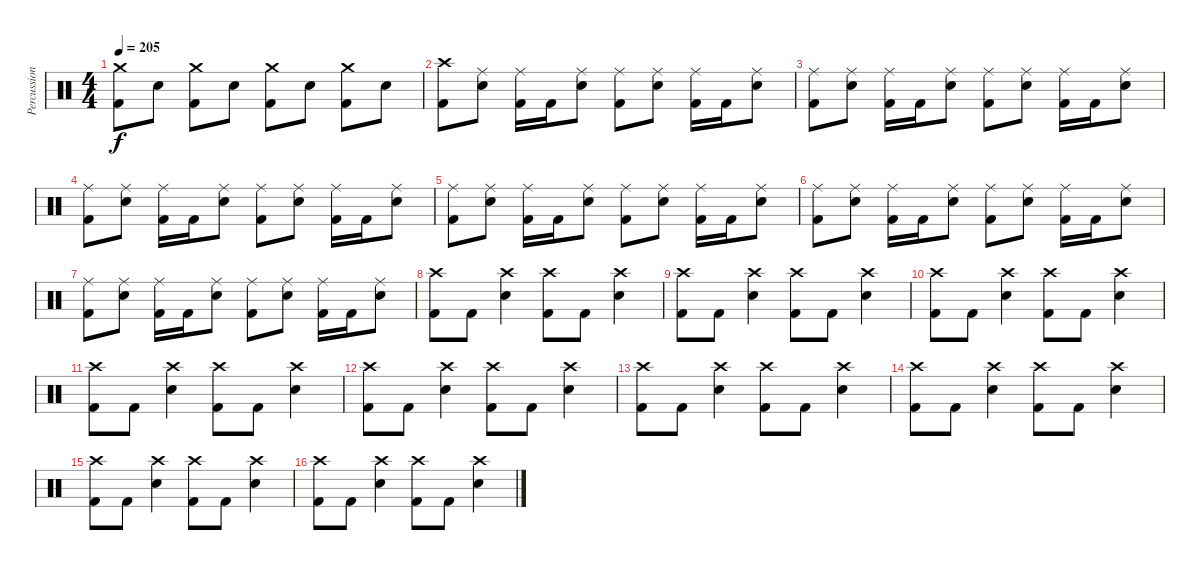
\track ("Percussions" "Percussion") {instrument percussion}
\staff {score}
\articulation defaults
\ts (4 4)
\tempo 205
\clef neutral
\ks c
("Crash medium (hit)" "Kick (hit) 2").8{dy f} "Snare (hit) 2".8 ("Crash medium (hit)" "Kick (hit) 2").8 "Snare (hit) 2".8 ("Crash medium (hit)" "Kick (hit) 2").8 "Snare (hit) 2".8 ("Crash medium (hit)" "Kick (hit) 2").8 "Snare (hit) 2".8 |
("Crash high (hit)" "Kick (hit) 2").8 ("Ride (middle)" "Snare (hit) 2").8 ("Ride (middle)" "Kick (hit) 2").16 "Kick (hit) 2".16 ("Ride (middle)" "Snare (hit) 2").8 ("Ride (middle)" "Kick (hit) 2").8 ("Ride (middle)" "Snare (hit) 2").8 ("Ride (middle)" "Kick (hit) 2").16 "Kick (hit) 2".16 ("Ride (middle)" "Snare (hit) 2").8 |
("Ride (middle)" "Kick (hit) 2").8 ("Ride (middle)" "Snare (hit) 2").8 ("Ride (middle)" "Kick (hit) 2").16 "Kick (hit) 2".16 ("Ride (middle)" "Snare (hit) 2").8 ("Ride (middle)" "Kick (hit) 2").8 ("Ride (middle)" "Snare (hit) 2").8 ("Ride (middle)" "Kick (hit) 2").16 "Kick (hit) 2".16 ("Ride (middle)" "Snare (hit) 2").8 |
("Ride (middle)" "Kick (hit) 2").8 ("Ride (middle)" "Snare (hit) 2").8 ("Ride (middle)" "Kick (hit) 2").16 "Kick (hit) 2".16 ("Ride (middle)" "Snare (hit) 2").8 ("Ride (middle)" "Kick (hit) 2").8 ("Ride (middle)" "Snare (hit) 2").8 ("Ride (middle)" "Kick (hit) 2").16 "Kick (hit) 2".16 ("Ride (middle)" "Snare (hit) 2").8 |
("Ride (middle)" "Kick (hit) 2").8 ("Ride (middle)" "Snare (hit) 2").8 ("Ride (middle)" "Kick (hit) 2").16 "Kick (hit) 2".16 ("Ride (middle)" "Snare (hit) 2").8 ("Ride (middle)" "Kick (hit) 2").8 ("Ride (middle)" "Snare (hit) 2").8 ("Ride (middle)" "Kick (hit) 2").16 "Kick (hit) 2".16 ("Ride (middle)" "Snare (hit) 2").8 |
("Ride (middle)" "Kick (hit) 2").8 ("Ride (middle)" "Snare (hit) 2").8 ("Ride (middle)" "Kick (hit) 2").16 "Kick (hit) 2".16 ("Ride (middle)" "Snare (hit) 2").8 ("Ride (middle)" "Kick (hit) 2").8 ("Ride (middle)" "Snare (hit) 2").8 ("Ride (middle)" "Kick (hit) 2").16 "Kick (hit) 2".16 ("Ride (middle)" "Snare (hit) 2").8 |
("Ride (middle)" "Kick (hit) 2").8 ("Ride (middle)" "Snare (hit) 2").8 ("Ride (middle)" "Kick (hit) 2").16 "Kick (hit) 2".16 ("Ride (middle)" "Snare (hit) 2").8 ("Ride (middle)" "Kick (hit) 2").8 ("Ride (middle)" "Snare (hit) 2").8 ("Ride (middle)" "Kick (hit) 2").16 "Kick (hit) 2".16 ("Ride (middle)" "Snare (hit) 2").8 |
("Crash high (hit)" "Kick (hit) 2").8 "Kick (hit) 2".8 ("Crash high (hit)" "Snare (hit) 2").4 ("Crash high (hit)" "Kick (hit) 2").8 "Kick (hit) 2".8 ("Crash high (hit)" "Snare (hit) 2").4 |
("Crash high (hit)" "Kick (hit) 2").8 "Kick (hit) 2".8 ("Crash high (hit)" "Snare (hit) 2").4 ("Crash high (hit)" "Kick (hit) 2").8 "Kick (hit) 2".8 ("Crash high (hit)" "Snare (hit) 2").4 |
("Crash high (hit)" "Kick (hit) 2").8 "Kick (hit) 2".8 ("Crash high (hit)" "Snare (hit) 2").4 ("Crash high (hit)" "Kick (hit) 2").8 "Kick (hit) 2".8 ("Crash high (hit)" "Snare (hit) 2").4 |
("Crash high (hit)" "Kick (hit) 2").8 "Kick (hit) 2".8 ("Crash high (hit)" "Snare (hit) 2").4 ("Crash high (hit)" "Kick (hit) 2").8 "Kick (hit) 2".8 ("Crash high (hit)" "Snare (hit) 2").4 |
("Crash high (hit)" "Kick (hit) 2").8 "Kick (hit) 2".8 ("Crash high (hit)" "Snare (hit) 2").4 ("Crash high (hit)" "Kick (hit) 2").8 "Kick (hit) 2".8 ("Crash high (hit)" "Snare (hit) 2").4 |
("Crash high (hit)" "Kick (hit) 2").8 "Kick (hit) 2".8 ("Crash high (hit)" "Snare (hit) 2").4 ("Crash high (hit)" "Kick (hit) 2").8 "Kick (hit) 2".8 ("Crash high (hit)" "Snare (hit) 2").4 |
("Crash high (hit)" "Kick (hit) 2").8 "Kick (hit) 2".8 ("Crash high (hit)" "Snare (hit) 2").4 ("Crash high (hit)" "Kick (hit) 2").8 "Kick (hit) 2".8 ("Crash high (hit)" "Snare (hit) 2").4 |
("Crash high (hit)" "Kick (hit) 2").8 "Kick (hit) 2".8 ("Crash high (hit)" "Snare (hit) 2").4 ("Crash high (hit)" "Kick (hit) 2").8 "Kick (hit) 2".8 ("Crash high (hit)" "Snare (hit) 2").4 |
("Crash high (hit)" "Kick (hit) 2").8 "Kick (hit) 2".8 ("Crash high (hit)" "Snare (hit) 2").4 ("Crash high (hit)" "Kick (hit) 2").8 "Kick (hit) 2".8 ("Crash high (hit)" "Snare (hit) 2").4
